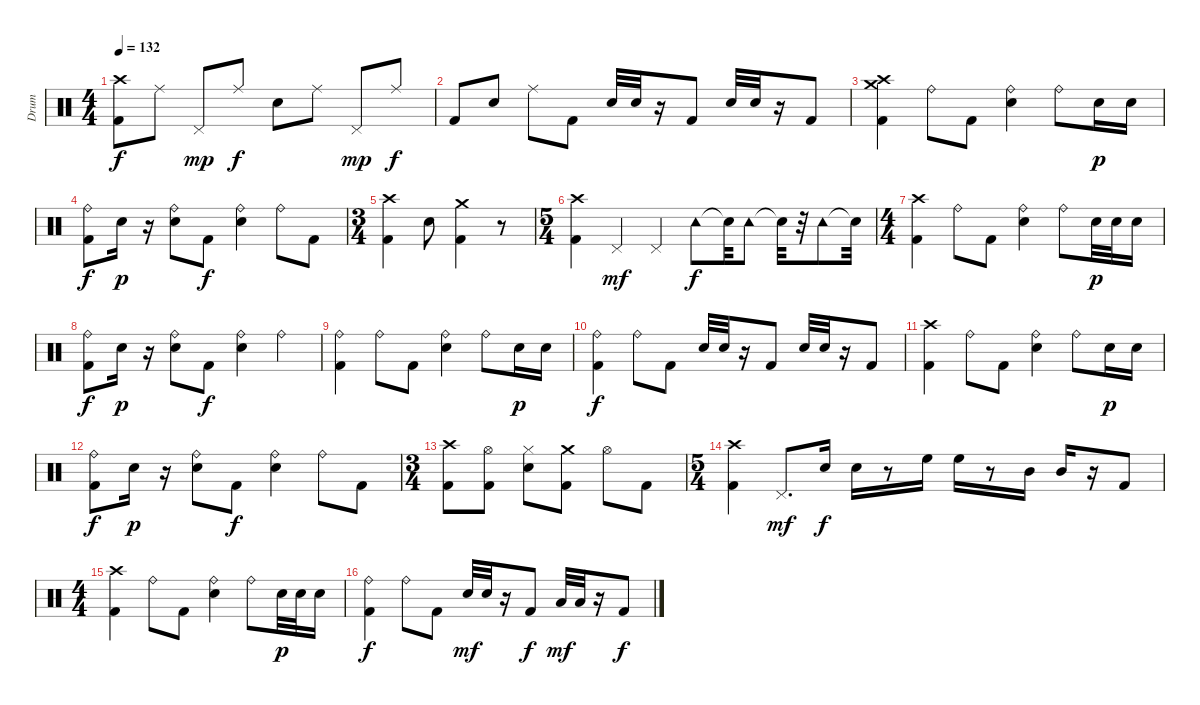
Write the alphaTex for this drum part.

\track ("Drum" "Drum") {instrument percussion}
\staff {score}
\articulation defaults
\ts (4 4)
\tempo 132
\clef neutral
\ks c
("Crash high (hit)" "Kick (hit) 2").8{dy f} "Ride (middle)".8 "Pedal Hi-Hat (hit)".8{dy mp} "Ride (middle)".8{dy f} "Electric Snare (hit)".8 "Ride (middle)".8 "Pedal Hi-Hat (hit)".8{dy mp} "Ride (middle)".8{dy f} |
"Kick (hit) 2".8 "Electric Snare (hit)".8 "Ride (middle)".8 "Kick (hit) 2".8 "Electric Snare (hit)".32 "Electric Snare (hit)".32 r.16 "Kick (hit) 2".8 "Electric Snare (hit)".32 "Electric Snare (hit)".32 r.16 "Kick (hit) 2".8 |
("Crash high (hit)" "Kick (hit) 2" "Crash medium (hit)").4 "Ride (bell)".8 "Kick (hit) 2".8 ("Ride (bell)" "Electric Snare (hit)").4 "Ride (bell)".8 "Electric Snare (hit)".16{dy p} "Electric Snare (hit)".16 |
("Ride (bell)" "Kick (hit) 2").8{dy f} "Electric Snare (hit)".16{dy p} r.16 ("Ride (bell)" "Electric Snare (hit)").8 "Kick (hit) 2".8{dy f} ("Ride (bell)" "Electric Snare (hit)").4 "Ride (bell)".8 "Kick (hit) 2".8 |
\ts (3 4)
("Crash high (hit)" "Kick (hit) 2").4 "Electric Snare (hit)".8 ("Kick (hit) 2" "Crash medium (hit)").4 r.8 |
\ts (5 4)
("Crash high (hit)" "Kick (hit) 2").4 "Pedal Hi-Hat (hit)".4{dy mf} "Pedal Hi-Hat (hit)".4 "Tambourine (hit)".8{dy f} "Snare (hit)"{t}.32 "Tambourine (hit)".8 "Snare (hit)"{t}.32 r.32 "Tambourine (hit)".8 "Snare (hit)"{t}.32 |
\ts (4 4)
("Kick (hit) 2" "Crash high (hit)").4 "Ride (bell)".8 "Kick (hit) 2".8 ("Ride (bell)" "Electric Snare (hit)").4 "Ride (bell)".8 "Electric Snare (hit)".32{dy p} "Electric Snare (hit)".32 "Electric Snare (hit)".16 |
("Ride (bell)" "Kick (hit) 2").8{dy f} "Electric Snare (hit)".16{dy p} r.16 ("Ride (bell)" "Electric Snare (hit)").8 "Kick (hit) 2".8{dy f} ("Ride (bell)" "Electric Snare (hit)").4 "Ride (bell)".4 |
("Kick (hit) 2" "Ride (bell)").4 "Ride (bell)".8 "Kick (hit) 2".8 ("Ride (bell)" "Electric Snare (hit)").4 "Ride (bell)".8 "Electric Snare (hit)".16{dy p} "Electric Snare (hit)".16 |
("Kick (hit) 2" "Ride (bell)").4{dy f} "Ride (bell)".8 "Kick (hit) 2".8 "Electric Snare (hit)".32 "Electric Snare (hit)".32 r.16 "Kick (hit) 2".8 "Electric Snare (hit)".32 "Electric Snare (hit)".32 r.16 "Kick (hit) 2".8 |
("Kick (hit) 2" "Crash high (hit)").4 "Ride (bell)".8 "Kick (hit) 2".8 ("Ride (bell)" "Electric Snare (hit)").4 "Ride (bell)".8 "Electric Snare (hit)".16{dy p} "Electric Snare (hit)".16 |
("Ride (bell)" "Kick (hit) 2").8{dy f} "Electric Snare (hit)".16{dy p} r.16 ("Ride (bell)" "Electric Snare (hit)").8 "Kick (hit) 2".8{dy f} ("Ride (bell)" "Electric Snare (hit)").4 "Ride (bell)".8 "Kick (hit) 2".8 |
\ts (3 4)
("Crash high (hit)" "Kick (hit) 2").8 ("Kick (hit) 2" "Hi-Hat (open)").8 ("Electric Snare (hit)" "Hi-Hat (closed)").8 ("Crash medium (hit)" "Kick (hit) 2").8 "Hi-Hat (open)".8 "Kick (hit) 2".8 |
\ts (5 4)
("Crash high (hit)" "Kick (hit) 2").4 "Pedal Hi-Hat (hit)".8{d dy mf} "Electric Snare (hit)".16{dy f} "Electric Snare (hit)".16 r.8 "High Floor Tom (hit)".16 "High Floor Tom (hit)".16 r.8 "Mid Tom (hit)".16 "Mid Tom (hit)".16 r.16 "Kick (hit) 2".8 |
\ts (4 4)
("Crash high (hit)" "Kick (hit) 2").4 "Ride (bell)".8 "Kick (hit) 2".8 ("Ride (bell)" "Electric Snare (hit)").4 "Ride (bell)".8 "Electric Snare (hit)".32{dy p} "Electric Snare (hit)".32 "Electric Snare (hit)".16 |
("Ride (bell)" "Kick (hit) 2").4{dy f} "Ride (bell)".8 "Kick (hit) 2".8 "Electric Snare (hit)".32{dy mf} "Electric Snare (hit)".32 r.16 "Kick (hit) 2".8{dy f} "Low Tom (hit)".32{dy mf} "Low Tom (hit)".32 r.16 "Kick (hit) 2".8{dy f}
